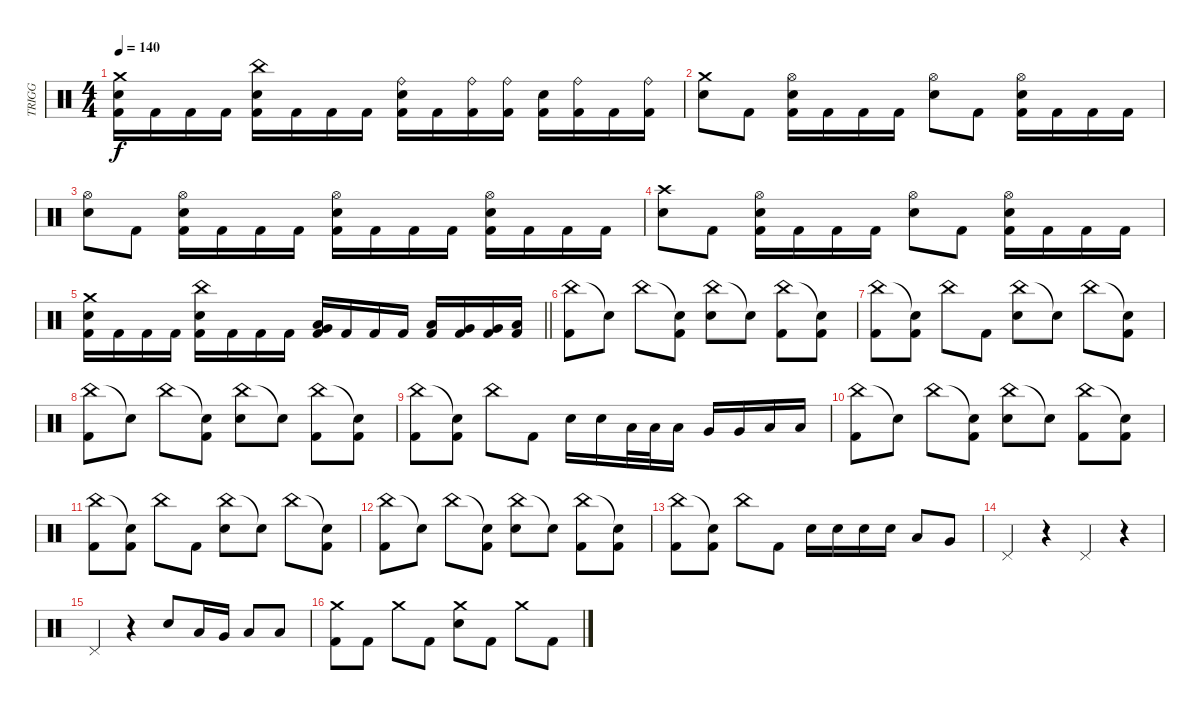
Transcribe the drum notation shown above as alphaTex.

\track ("TRIGG" "TRIGG") {instrument percussion}
\staff {score}
\articulation defaults
\ts (4 4)
\tempo 140
\clef neutral
\ks c
("Crash medium (hit)" "Electric Snare (hit)" "Kick (hit) 2").16{dy f} "Kick (hit) 2".16 "Kick (hit) 2".16 "Kick (hit) 2".16 ("China (hit)" "Electric Snare (hit)" "Kick (hit) 2").16 "Kick (hit) 2".16 "Kick (hit) 2".16 "Kick (hit) 2".16 ("Ride (bell)" "Electric Snare (hit)" "Kick (hit) 2").16 "Kick (hit) 2".16 ("Ride (bell)" "Kick (hit) 2").16 ("Ride (bell)" "Kick (hit) 2").16 ("Electric Snare (hit)" "Kick (hit) 2").16 ("Ride (bell)" "Kick (hit) 2").16 "Kick (hit) 2".16 ("Ride (bell)" "Kick (hit) 2").16 |
("Crash medium (hit)" "Electric Snare (hit)").8 "Kick (hit) 2".8 ("Hi-Hat (open)" "Electric Snare (hit)" "Kick (hit) 2").16 "Kick (hit) 2".16 "Kick (hit) 2".16 "Kick (hit) 2".16 ("Hi-Hat (open)" "Electric Snare (hit)").8 "Kick (hit) 2".8 ("Hi-Hat (open)" "Electric Snare (hit)" "Kick (hit) 2").16 "Kick (hit) 2".16 "Kick (hit) 2".16 "Kick (hit) 2".16 |
("Hi-Hat (open)" "Electric Snare (hit)").8 "Kick (hit) 2".8 ("Hi-Hat (open)" "Electric Snare (hit)" "Kick (hit) 2").16 "Kick (hit) 2".16 "Kick (hit) 2".16 "Kick (hit) 2".16 ("Hi-Hat (open)" "Electric Snare (hit)" "Kick (hit) 2").16 "Kick (hit) 2".16 "Kick (hit) 2".16 "Kick (hit) 2".16 ("Hi-Hat (open)" "Electric Snare (hit)" "Kick (hit) 2").16 "Kick (hit) 2".16 "Kick (hit) 2".16 "Kick (hit) 2".16 |
("Crash high (hit)" "Electric Snare (hit)").8 "Kick (hit) 2".8 ("Hi-Hat (open)" "Electric Snare (hit)" "Kick (hit) 2").16 "Kick (hit) 2".16 "Kick (hit) 2".16 "Kick (hit) 2".16 ("Hi-Hat (open)" "Electric Snare (hit)").8 "Kick (hit) 2".8 ("Hi-Hat (open)" "Electric Snare (hit)" "Kick (hit) 2").16 "Kick (hit) 2".16 "Kick (hit) 2".16 "Kick (hit) 2".16 |
\barLineRight lightlight
("Crash medium (hit)" "Electric Snare (hit)" "Kick (hit) 2").16 "Kick (hit) 2".16 "Kick (hit) 2".16 "Kick (hit) 2".16 ("China (hit)" "Electric Snare (hit)" "Kick (hit) 2").16 "Kick (hit) 2".16 "Kick (hit) 2".16 "Kick (hit) 2".16 ("Low Tom (hit)" "Very Low Tom (hit)" "Kick (hit) 2").16 "Kick (hit) 2".16 "Kick (hit) 2".16 "Kick (hit) 2".16 ("Low Tom (hit)" "Kick (hit) 2").16 ("Very Low Tom (hit)" "Kick (hit) 2").16 ("Very Low Tom (hit)" "Kick (hit) 2").16 ("Low Floor Tom (hit)" "Kick (hit) 2").16 |
("China (hit)" "Kick (hit) 2").8 "Snare (hit)"{t}.8 "China (hit)".8 ("Snare (hit)"{t} "Kick (hit) 2").8 ("China (hit)" "Electric Snare (hit)").8 "Snare (hit)"{t}.8 ("China (hit)" "Kick (hit) 2").8 ("Snare (hit)"{t} "Kick (hit) 2").8 |
("China (hit)" "Kick (hit) 2").8 ("Snare (hit)"{t} "Kick (hit) 2").8 "China (hit)".8 "Kick (hit) 2".8 ("China (hit)" "Electric Snare (hit)").8 "Snare (hit)"{t}.8 "China (hit)".8 ("Snare (hit)"{t} "Kick (hit) 2").8 |
("China (hit)" "Kick (hit) 2").8 "Snare (hit)"{t}.8 "China (hit)".8 ("Snare (hit)"{t} "Kick (hit) 2").8 ("China (hit)" "Electric Snare (hit)").8 "Snare (hit)"{t}.8 ("China (hit)" "Kick (hit) 2").8 ("Snare (hit)"{t} "Kick (hit) 2").8 |
("China (hit)" "Kick (hit) 2").8 ("Snare (hit)"{t} "Kick (hit) 2").8 "China (hit)".8 "Kick (hit) 2".8 "Electric Snare (hit)".16 "Electric Snare (hit)".16 "Low Tom (hit)".32 "Low Tom (hit)".32 "Low Tom (hit)".16 "Very Low Tom (hit)".16 "Very Low Tom (hit)".16 "Low Floor Tom (hit)".16 "Low Floor Tom (hit)".16 |
("China (hit)" "Kick (hit) 2").8 "Snare (hit)"{t}.8 "China (hit)".8 ("Snare (hit)"{t} "Kick (hit) 2").8 ("China (hit)" "Electric Snare (hit)").8 "Snare (hit)"{t}.8 ("China (hit)" "Kick (hit) 2").8 ("Snare (hit)"{t} "Kick (hit) 2").8 |
("China (hit)" "Kick (hit) 2").8 ("Snare (hit)"{t} "Kick (hit) 2").8 "China (hit)".8 "Kick (hit) 2".8 ("China (hit)" "Electric Snare (hit)").8 "Snare (hit)"{t}.8 "China (hit)".8 ("Snare (hit)"{t} "Kick (hit) 2").8 |
("China (hit)" "Kick (hit) 2").8 "Snare (hit)"{t}.8 "China (hit)".8 ("Snare (hit)"{t} "Kick (hit) 2").8 ("China (hit)" "Electric Snare (hit)").8 "Snare (hit)"{t}.8 ("China (hit)" "Kick (hit) 2").8 ("Snare (hit)"{t} "Kick (hit) 2").8 |
("China (hit)" "Kick (hit) 2").8 ("Snare (hit)"{t} "Kick (hit) 2").8 "China (hit)".8 "Kick (hit) 2".8 "Electric Snare (hit)".16 "Electric Snare (hit)".16 "Electric Snare (hit)".16 "Electric Snare (hit)".16 "Low Tom (hit)".8 "Very Low Tom (hit)".8 |
"Pedal Hi-Hat (hit)".4 r.4 "Pedal Hi-Hat (hit)".4 r.4 |
"Pedal Hi-Hat (hit)".4 r.4 "Electric Snare (hit)".8 "Low Tom (hit)".16 "Very Low Tom (hit)".16 "Low Floor Tom (hit)".8 "Low Floor Tom (hit)".8 |
("Crash medium (hit)" "Kick (hit) 2").8 "Kick (hit) 2".8 "Crash medium (hit)".8 "Kick (hit) 2".8 ("Crash medium (hit)" "Electric Snare (hit)").8 "Kick (hit) 2".8 "Crash medium (hit)".8 "Kick (hit) 2".8
